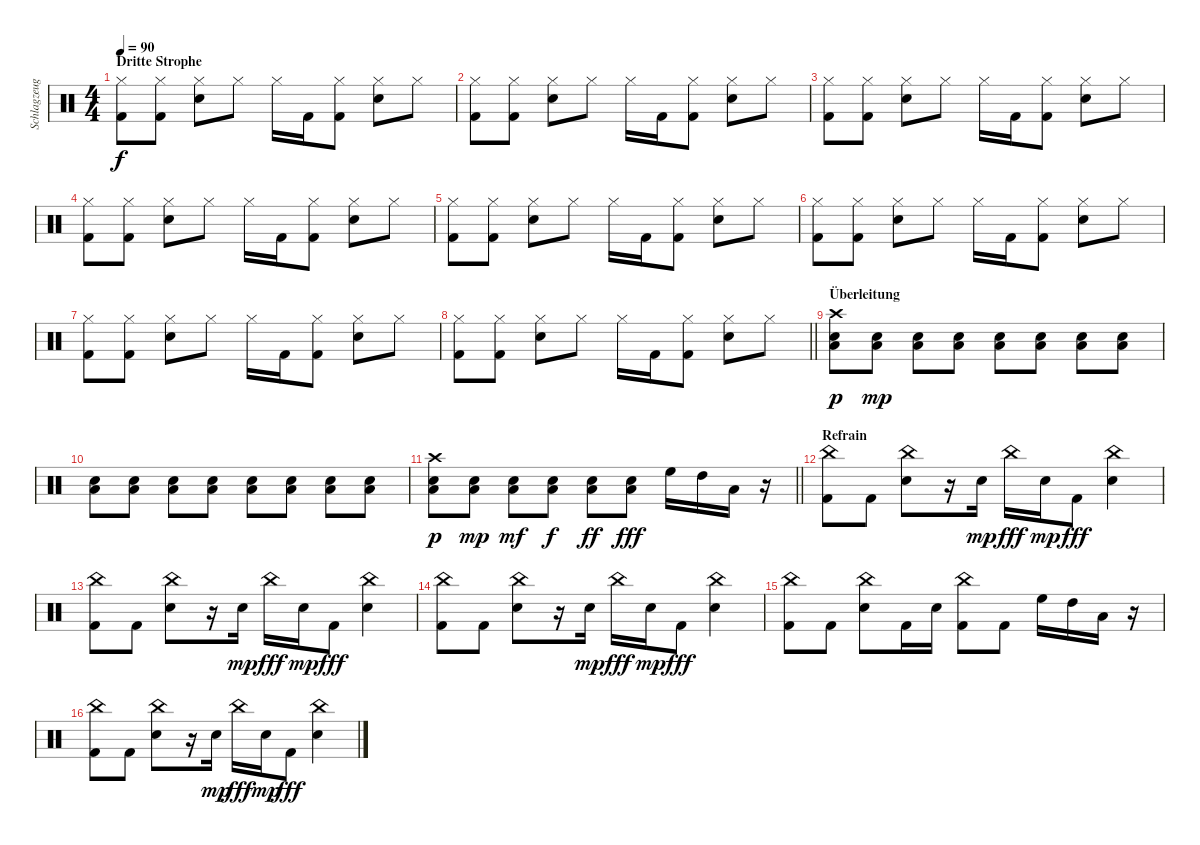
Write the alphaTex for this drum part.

\track ("Schlagzeug" "Schlagzeug") {instrument percussion}
\staff {score}
\articulation defaults
\ts (4 4)
\section ("" "Dritte Strophe")
\tempo 90
\clef neutral
\ks c
("Hi-Hat (closed)" "Kick (hit) 2").8{dy f} ("Hi-Hat (closed)" "Kick (hit) 2").8 ("Hi-Hat (closed)" "Snare (hit) 2").8 "Hi-Hat (closed)".8 "Hi-Hat (closed)".16 "Kick (hit) 2".16 ("Hi-Hat (closed)" "Kick (hit) 2").8 ("Hi-Hat (closed)" "Snare (hit) 2").8 "Hi-Hat (closed)".8 |
("Hi-Hat (closed)" "Kick (hit) 2").8 ("Hi-Hat (closed)" "Kick (hit) 2").8 ("Hi-Hat (closed)" "Snare (hit) 2").8 "Hi-Hat (closed)".8 "Hi-Hat (closed)".16 "Kick (hit) 2".16 ("Hi-Hat (closed)" "Kick (hit) 2").8 ("Hi-Hat (closed)" "Snare (hit) 2").8 "Hi-Hat (closed)".8 |
("Hi-Hat (closed)" "Kick (hit) 2").8 ("Hi-Hat (closed)" "Kick (hit) 2").8 ("Hi-Hat (closed)" "Snare (hit) 2").8 "Hi-Hat (closed)".8 "Hi-Hat (closed)".16 "Kick (hit) 2".16 ("Hi-Hat (closed)" "Kick (hit) 2").8 ("Hi-Hat (closed)" "Snare (hit) 2").8 "Hi-Hat (closed)".8 |
("Hi-Hat (closed)" "Kick (hit) 2").8 ("Hi-Hat (closed)" "Kick (hit) 2").8 ("Hi-Hat (closed)" "Snare (hit) 2").8 "Hi-Hat (closed)".8 "Hi-Hat (closed)".16 "Kick (hit) 2".16 ("Hi-Hat (closed)" "Kick (hit) 2").8 ("Hi-Hat (closed)" "Snare (hit) 2").8 "Hi-Hat (closed)".8 |
("Hi-Hat (closed)" "Kick (hit) 2").8 ("Hi-Hat (closed)" "Kick (hit) 2").8 ("Hi-Hat (closed)" "Snare (hit) 2").8 "Hi-Hat (closed)".8 "Hi-Hat (closed)".16 "Kick (hit) 2".16 ("Hi-Hat (closed)" "Kick (hit) 2").8 ("Hi-Hat (closed)" "Snare (hit) 2").8 "Hi-Hat (closed)".8 |
("Hi-Hat (closed)" "Kick (hit) 2").8 ("Hi-Hat (closed)" "Kick (hit) 2").8 ("Hi-Hat (closed)" "Snare (hit) 2").8 "Hi-Hat (closed)".8 "Hi-Hat (closed)".16 "Kick (hit) 2".16 ("Hi-Hat (closed)" "Kick (hit) 2").8 ("Hi-Hat (closed)" "Snare (hit) 2").8 "Hi-Hat (closed)".8 |
("Hi-Hat (closed)" "Kick (hit) 2").8 ("Hi-Hat (closed)" "Kick (hit) 2").8 ("Hi-Hat (closed)" "Snare (hit) 2").8 "Hi-Hat (closed)".8 "Hi-Hat (closed)".16 "Kick (hit) 2".16 ("Hi-Hat (closed)" "Kick (hit) 2").8 ("Hi-Hat (closed)" "Snare (hit) 2").8 "Hi-Hat (closed)".8 |
\barLineRight lightlight
("Hi-Hat (closed)" "Kick (hit) 2").8 ("Hi-Hat (closed)" "Kick (hit) 2").8 ("Hi-Hat (closed)" "Snare (hit) 2").8 "Hi-Hat (closed)".8 "Hi-Hat (closed)".16 "Kick (hit) 2".16 ("Hi-Hat (closed)" "Kick (hit) 2").8 ("Hi-Hat (closed)" "Snare (hit) 2").8 "Hi-Hat (closed)".8 |
\section ("" "Überleitung")
("Crash high (hit)" "Low Tom (hit)" "Snare (hit) 2").8{dy p} ("Low Tom (hit)" "Snare (hit) 2").8{dy mp} ("Low Tom (hit)" "Snare (hit) 2").8 ("Low Tom (hit)" "Snare (hit) 2").8 ("Low Tom (hit)" "Snare (hit) 2").8 ("Low Tom (hit)" "Snare (hit) 2").8 ("Low Tom (hit)" "Snare (hit) 2").8 ("Low Tom (hit)" "Snare (hit) 2").8 |
("Low Tom (hit)" "Snare (hit) 2").8 ("Low Tom (hit)" "Snare (hit) 2").8 ("Low Tom (hit)" "Snare (hit) 2").8 ("Low Tom (hit)" "Snare (hit) 2").8 ("Low Tom (hit)" "Snare (hit) 2").8 ("Low Tom (hit)" "Snare (hit) 2").8 ("Low Tom (hit)" "Snare (hit) 2").8 ("Low Tom (hit)" "Snare (hit) 2").8 |
\barLineRight lightlight
("Crash high (hit)" "Low Tom (hit)" "Snare (hit) 2").8{dy p} ("Low Tom (hit)" "Snare (hit) 2").8{dy mp} ("Low Tom (hit)" "Snare (hit) 2").8{dy mf} ("Low Tom (hit)" "Snare (hit) 2").8{dy f} ("Low Tom (hit)" "Snare (hit) 2").8{dy ff} ("Low Tom (hit)" "Snare (hit) 2").8{dy fff} "High Floor Tom (hit)".16 "High Tom (hit)".16 "Low Tom (hit)".16 r.16 |
\section ("" "Refrain")
("China (hit)" "Kick (hit) 2").8 "Kick (hit) 2".8 ("China (hit)" "Snare (hit) 2").8 r.16 "Snare (hit) 2".16{dy mp} "China (hit)".16{dy fff} "Snare (hit) 2".16{dy mp} "Kick (hit) 2".8{dy fff} ("China (hit)" "Snare (hit) 2").4 |
("China (hit)" "Kick (hit) 2").8 "Kick (hit) 2".8 ("China (hit)" "Snare (hit) 2").8 r.16 "Snare (hit) 2".16{dy mp} "China (hit)".16{dy fff} "Snare (hit) 2".16{dy mp} "Kick (hit) 2".8{dy fff} ("China (hit)" "Snare (hit) 2").4 |
("China (hit)" "Kick (hit) 2").8 "Kick (hit) 2".8 ("China (hit)" "Snare (hit) 2").8 r.16 "Snare (hit) 2".16{dy mp} "China (hit)".16{dy fff} "Snare (hit) 2".16{dy mp} "Kick (hit) 2".8{dy fff} ("China (hit)" "Snare (hit) 2").4 |
("China (hit)" "Kick (hit) 2").8 "Kick (hit) 2".8 ("China (hit)" "Snare (hit) 2").8 "Kick (hit) 2".16 "Snare (hit) 2".16 ("China (hit)" "Kick (hit) 2").8 "Kick (hit) 2".8 "High Floor Tom (hit)".16 "High Tom (hit)".16 "Low Tom (hit)".16 r.16 |
("China (hit)" "Kick (hit) 2").8 "Kick (hit) 2".8 ("China (hit)" "Snare (hit) 2").8 r.16 "Snare (hit) 2".16{dy mp} "China (hit)".16{dy fff} "Snare (hit) 2".16{dy mp} "Kick (hit) 2".8{dy fff} ("China (hit)" "Snare (hit) 2").4
